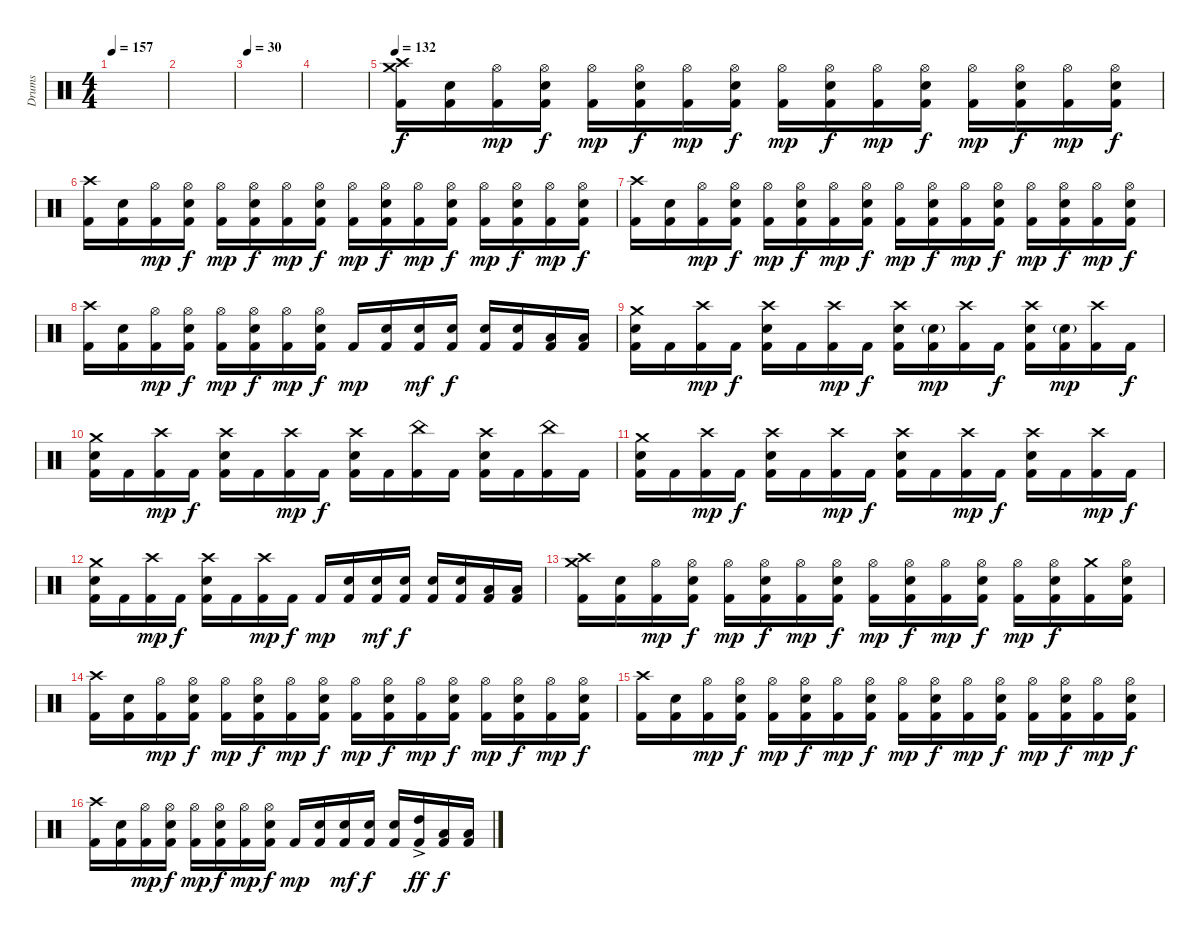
\track ("Drums" "Drums") {instrument percussion}
\staff {score}
\articulation defaults
\ts (4 4)
\tempo 157
\clef neutral
\ks c
|
|
\tempo 30
|
|
\tempo 132
("Crash high (hit)" "Crash medium (hit)" "Kick (hit) 2").16 ("Electric Snare (hit)" "Kick (hit) 2").16 ("Hi-Hat (open)" "Kick (hit) 2").16{dy mp} ("Hi-Hat (open)" "Electric Snare (hit)" "Kick (hit) 2").16{dy f} ("Hi-Hat (open)" "Kick (hit) 2").16{dy mp} ("Hi-Hat (open)" "Electric Snare (hit)" "Kick (hit) 2").16{dy f} ("Hi-Hat (open)" "Kick (hit) 2").16{dy mp} ("Hi-Hat (open)" "Electric Snare (hit)" "Kick (hit) 2").16{dy f} ("Hi-Hat (open)" "Kick (hit) 2").16{dy mp} ("Hi-Hat (open)" "Electric Snare (hit)" "Kick (hit) 2").16{dy f} ("Hi-Hat (open)" "Kick (hit) 2").16{dy mp} ("Hi-Hat (open)" "Electric Snare (hit)" "Kick (hit) 2").16{dy f} ("Hi-Hat (open)" "Kick (hit) 2").16{dy mp} ("Hi-Hat (open)" "Electric Snare (hit)" "Kick (hit) 2").16{dy f} ("Hi-Hat (open)" "Kick (hit) 2").16{dy mp} ("Hi-Hat (open)" "Electric Snare (hit)" "Kick (hit) 2").16{dy f} |
("Crash high (hit)" "Kick (hit) 2").16 ("Electric Snare (hit)" "Kick (hit) 2").16 ("Hi-Hat (open)" "Kick (hit) 2").16{dy mp} ("Hi-Hat (open)" "Electric Snare (hit)" "Kick (hit) 2").16{dy f} ("Hi-Hat (open)" "Kick (hit) 2").16{dy mp} ("Hi-Hat (open)" "Electric Snare (hit)" "Kick (hit) 2").16{dy f} ("Hi-Hat (open)" "Kick (hit) 2").16{dy mp} ("Hi-Hat (open)" "Electric Snare (hit)" "Kick (hit) 2").16{dy f} ("Hi-Hat (open)" "Kick (hit) 2").16{dy mp} ("Hi-Hat (open)" "Electric Snare (hit)" "Kick (hit) 2").16{dy f} ("Hi-Hat (open)" "Kick (hit) 2").16{dy mp} ("Hi-Hat (open)" "Electric Snare (hit)" "Kick (hit) 2").16{dy f} ("Hi-Hat (open)" "Kick (hit) 2").16{dy mp} ("Hi-Hat (open)" "Electric Snare (hit)" "Kick (hit) 2").16{dy f} ("Hi-Hat (open)" "Kick (hit) 2").16{dy mp} ("Hi-Hat (open)" "Electric Snare (hit)" "Kick (hit) 2").16{dy f} |
("Crash high (hit)" "Kick (hit) 2").16 ("Electric Snare (hit)" "Kick (hit) 2").16 ("Hi-Hat (open)" "Kick (hit) 2").16{dy mp} ("Hi-Hat (open)" "Electric Snare (hit)" "Kick (hit) 2").16{dy f} ("Hi-Hat (open)" "Kick (hit) 2").16{dy mp} ("Hi-Hat (open)" "Electric Snare (hit)" "Kick (hit) 2").16{dy f} ("Hi-Hat (open)" "Kick (hit) 2").16{dy mp} ("Hi-Hat (open)" "Electric Snare (hit)" "Kick (hit) 2").16{dy f} ("Hi-Hat (open)" "Kick (hit) 2").16{dy mp} ("Hi-Hat (open)" "Electric Snare (hit)" "Kick (hit) 2").16{dy f} ("Hi-Hat (open)" "Kick (hit) 2").16{dy mp} ("Hi-Hat (open)" "Electric Snare (hit)" "Kick (hit) 2").16{dy f} ("Hi-Hat (open)" "Kick (hit) 2").16{dy mp} ("Hi-Hat (open)" "Electric Snare (hit)" "Kick (hit) 2").16{dy f} ("Hi-Hat (open)" "Kick (hit) 2").16{dy mp} ("Hi-Hat (open)" "Electric Snare (hit)" "Kick (hit) 2").16{dy f} |
("Crash high (hit)" "Kick (hit) 2").16 ("Electric Snare (hit)" "Kick (hit) 2").16 ("Hi-Hat (open)" "Kick (hit) 2").16{dy mp} ("Hi-Hat (open)" "Electric Snare (hit)" "Kick (hit) 2").16{dy f} ("Hi-Hat (open)" "Kick (hit) 2").16{dy mp} ("Hi-Hat (open)" "Electric Snare (hit)" "Kick (hit) 2").16{dy f} ("Hi-Hat (open)" "Kick (hit) 2").16{dy mp} ("Hi-Hat (open)" "Electric Snare (hit)" "Kick (hit) 2").16{dy f} "Kick (hit) 2".16{dy mp} ("Electric Snare (hit)" "Kick (hit) 2").16 ("Electric Snare (hit)" "Kick (hit) 2").16{dy mf} ("Electric Snare (hit)" "Kick (hit) 2").16{dy f} ("Electric Snare (hit)" "Kick (hit) 2").16 ("Electric Snare (hit)" "Kick (hit) 2").16 ("Low Tom (hit)" "Kick (hit) 2").16 ("Low Tom (hit)" "Kick (hit) 2").16 |
("Crash medium (hit)" "Electric Snare (hit)" "Kick (hit) 2").16 "Kick (hit) 2".16 ("Crash high (hit)" "Kick (hit) 2").16{dy mp} "Kick (hit) 2".16{dy f} ("Crash high (hit)" "Electric Snare (hit)" "Kick (hit) 2").16 "Kick (hit) 2".16 ("Crash high (hit)" "Kick (hit) 2").16{dy mp} "Kick (hit) 2".16{dy f} ("Crash high (hit)" "Electric Snare (hit)" "Kick (hit) 2").16 ("Electric Snare (hit)"{g} "Kick (hit) 2").16{dy mp} ("Crash high (hit)" "Kick (hit) 2").16 "Kick (hit) 2".16{dy f} ("Crash high (hit)" "Electric Snare (hit)" "Kick (hit) 2").16 ("Electric Snare (hit)"{g} "Kick (hit) 2").16{dy mp} ("Crash high (hit)" "Kick (hit) 2").16 "Kick (hit) 2".16{dy f} |
("Crash medium (hit)" "Electric Snare (hit)" "Kick (hit) 2").16 "Kick (hit) 2".16 ("Crash high (hit)" "Kick (hit) 2").16{dy mp} "Kick (hit) 2".16{dy f} ("Crash high (hit)" "Electric Snare (hit)" "Kick (hit) 2").16 "Kick (hit) 2".16 ("Crash high (hit)" "Kick (hit) 2").16{dy mp} "Kick (hit) 2".16{dy f} ("Crash high (hit)" "Electric Snare (hit)" "Kick (hit) 2").16 "Kick (hit) 2".16 ("China (hit)" "Kick (hit) 2").16 "Kick (hit) 2".16 ("Crash high (hit)" "Electric Snare (hit)" "Kick (hit) 2").16 "Kick (hit) 2".16 ("China (hit)" "Kick (hit) 2").16 "Kick (hit) 2".16 |
("Crash medium (hit)" "Electric Snare (hit)" "Kick (hit) 2").16 "Kick (hit) 2".16 ("Crash high (hit)" "Kick (hit) 2").16{dy mp} "Kick (hit) 2".16{dy f} ("Crash high (hit)" "Electric Snare (hit)" "Kick (hit) 2").16 "Kick (hit) 2".16 ("Crash high (hit)" "Kick (hit) 2").16{dy mp} "Kick (hit) 2".16{dy f} ("Crash high (hit)" "Electric Snare (hit)" "Kick (hit) 2").16 "Kick (hit) 2".16 ("Crash high (hit)" "Kick (hit) 2").16{dy mp} "Kick (hit) 2".16{dy f} ("Crash high (hit)" "Electric Snare (hit)" "Kick (hit) 2").16 "Kick (hit) 2".16 ("Crash high (hit)" "Kick (hit) 2").16{dy mp} "Kick (hit) 2".16{dy f} |
("Crash medium (hit)" "Electric Snare (hit)" "Kick (hit) 2").16 "Kick (hit) 2".16 ("Crash high (hit)" "Kick (hit) 2").16{dy mp} "Kick (hit) 2".16{dy f} ("Crash high (hit)" "Electric Snare (hit)" "Kick (hit) 2").16 "Kick (hit) 2".16 ("Crash high (hit)" "Kick (hit) 2").16{dy mp} "Kick (hit) 2".16{dy f} "Kick (hit) 2".16{dy mp} ("Electric Snare (hit)" "Kick (hit) 2").16 ("Electric Snare (hit)" "Kick (hit) 2").16{dy mf} ("Electric Snare (hit)" "Kick (hit) 2").16{dy f} ("Electric Snare (hit)" "Kick (hit) 2").16 ("Electric Snare (hit)" "Kick (hit) 2").16 ("Low Tom (hit)" "Kick (hit) 2").16 ("Low Tom (hit)" "Kick (hit) 2").16 |
("Crash high (hit)" "Crash medium (hit)" "Kick (hit) 2").16 ("Electric Snare (hit)" "Kick (hit) 2").16 ("Hi-Hat (open)" "Kick (hit) 2").16{dy mp} ("Hi-Hat (open)" "Electric Snare (hit)" "Kick (hit) 2").16{dy f} ("Hi-Hat (open)" "Kick (hit) 2").16{dy mp} ("Hi-Hat (open)" "Electric Snare (hit)" "Kick (hit) 2").16{dy f} ("Hi-Hat (open)" "Kick (hit) 2").16{dy mp} ("Hi-Hat (open)" "Electric Snare (hit)" "Kick (hit) 2").16{dy f} ("Hi-Hat (open)" "Kick (hit) 2").16{dy mp} ("Hi-Hat (open)" "Electric Snare (hit)" "Kick (hit) 2").16{dy f} ("Hi-Hat (open)" "Kick (hit) 2").16{dy mp} ("Hi-Hat (open)" "Electric Snare (hit)" "Kick (hit) 2").16{dy f} ("Hi-Hat (open)" "Kick (hit) 2").16{dy mp} ("Hi-Hat (open)" "Electric Snare (hit)" "Kick (hit) 2").16{dy f} ("Crash medium (hit)" "Kick (hit) 2").16 ("Hi-Hat (open)" "Electric Snare (hit)" "Kick (hit) 2").16 |
("Crash high (hit)" "Kick (hit) 2").16 ("Electric Snare (hit)" "Kick (hit) 2").16 ("Hi-Hat (open)" "Kick (hit) 2").16{dy mp} ("Hi-Hat (open)" "Electric Snare (hit)" "Kick (hit) 2").16{dy f} ("Hi-Hat (open)" "Kick (hit) 2").16{dy mp} ("Hi-Hat (open)" "Electric Snare (hit)" "Kick (hit) 2").16{dy f} ("Hi-Hat (open)" "Kick (hit) 2").16{dy mp} ("Hi-Hat (open)" "Electric Snare (hit)" "Kick (hit) 2").16{dy f} ("Hi-Hat (open)" "Kick (hit) 2").16{dy mp} ("Hi-Hat (open)" "Electric Snare (hit)" "Kick (hit) 2").16{dy f} ("Hi-Hat (open)" "Kick (hit) 2").16{dy mp} ("Hi-Hat (open)" "Electric Snare (hit)" "Kick (hit) 2").16{dy f} ("Hi-Hat (open)" "Kick (hit) 2").16{dy mp} ("Hi-Hat (open)" "Electric Snare (hit)" "Kick (hit) 2").16{dy f} ("Hi-Hat (open)" "Kick (hit) 2").16{dy mp} ("Hi-Hat (open)" "Electric Snare (hit)" "Kick (hit) 2").16{dy f} |
("Crash high (hit)" "Kick (hit) 2").16 ("Electric Snare (hit)" "Kick (hit) 2").16 ("Hi-Hat (open)" "Kick (hit) 2").16{dy mp} ("Hi-Hat (open)" "Electric Snare (hit)" "Kick (hit) 2").16{dy f} ("Hi-Hat (open)" "Kick (hit) 2").16{dy mp} ("Hi-Hat (open)" "Electric Snare (hit)" "Kick (hit) 2").16{dy f} ("Hi-Hat (open)" "Kick (hit) 2").16{dy mp} ("Hi-Hat (open)" "Electric Snare (hit)" "Kick (hit) 2").16{dy f} ("Hi-Hat (open)" "Kick (hit) 2").16{dy mp} ("Hi-Hat (open)" "Electric Snare (hit)" "Kick (hit) 2").16{dy f} ("Hi-Hat (open)" "Kick (hit) 2").16{dy mp} ("Hi-Hat (open)" "Electric Snare (hit)" "Kick (hit) 2").16{dy f} ("Hi-Hat (open)" "Kick (hit) 2").16{dy mp} ("Hi-Hat (open)" "Electric Snare (hit)" "Kick (hit) 2").16{dy f} ("Hi-Hat (open)" "Kick (hit) 2").16{dy mp} ("Hi-Hat (open)" "Electric Snare (hit)" "Kick (hit) 2").16{dy f} |
("Crash high (hit)" "Kick (hit) 2").16 ("Electric Snare (hit)" "Kick (hit) 2").16 ("Hi-Hat (open)" "Kick (hit) 2").16{dy mp} ("Hi-Hat (open)" "Electric Snare (hit)" "Kick (hit) 2").16{dy f} ("Hi-Hat (open)" "Kick (hit) 2").16{dy mp} ("Hi-Hat (open)" "Electric Snare (hit)" "Kick (hit) 2").16{dy f} ("Hi-Hat (open)" "Kick (hit) 2").16{dy mp} ("Hi-Hat (open)" "Electric Snare (hit)" "Kick (hit) 2").16{dy f} "Kick (hit) 2".16{dy mp} ("Electric Snare (hit)" "Kick (hit) 2").16 ("Electric Snare (hit)" "Kick (hit) 2").16{dy mf} ("Electric Snare (hit)" "Kick (hit) 2").16{dy f} ("Electric Snare (hit)" "Kick (hit) 2").16 ("High Tom (hit)"{ac} "Kick (hit) 2").16{dy ff} ("Low Tom (hit)" "Kick (hit) 2").16{dy f} ("Low Tom (hit)" "Kick (hit) 2").16
